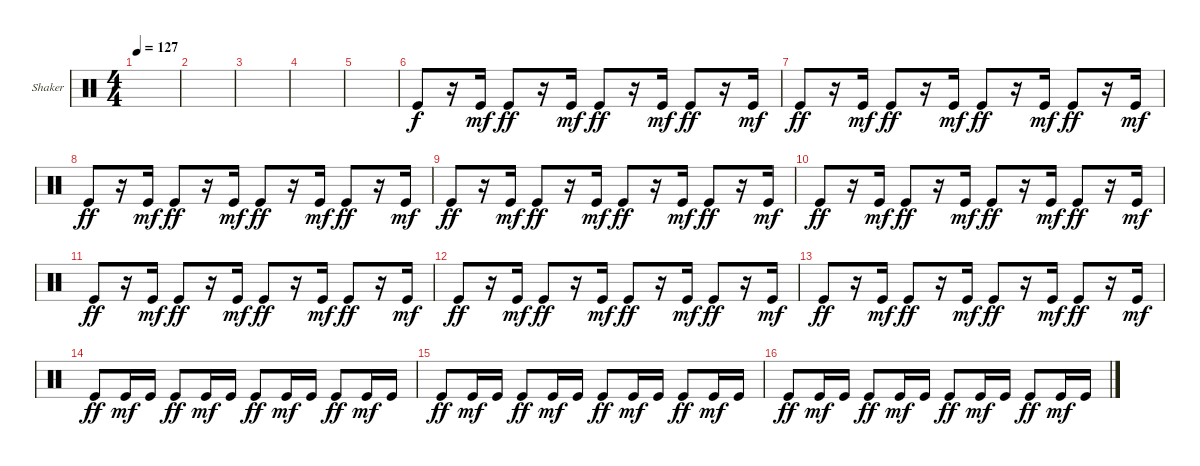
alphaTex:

\bracketExtendMode groupsimilarinstruments
\firstSystemTrackNameOrientation horizontal
\otherSystemsTrackNameOrientation horizontal
\track ("Shaker" "Shaker") {instrument percussion}
\staff {score}
\articulation defaults
\ts (4 4)
\tempo 127
\clef neutral
\ks c
|
|
|
|
|
"Kick (hit)".8 r.16 "Kick (hit)".16{dy mf} "Kick (hit)".8{dy ff} r.16 "Kick (hit)".16{dy mf} "Kick (hit)".8{dy ff} r.16 "Kick (hit)".16{dy mf} "Kick (hit)".8{dy ff} r.16 "Kick (hit)".16{dy mf} |
"Kick (hit)".8{dy ff} r.16 "Kick (hit)".16{dy mf} "Kick (hit)".8{dy ff} r.16 "Kick (hit)".16{dy mf} "Kick (hit)".8{dy ff} r.16 "Kick (hit)".16{dy mf} "Kick (hit)".8{dy ff} r.16 "Kick (hit)".16{dy mf} |
"Kick (hit)".8{dy ff} r.16 "Kick (hit)".16{dy mf} "Kick (hit)".8{dy ff} r.16 "Kick (hit)".16{dy mf} "Kick (hit)".8{dy ff} r.16 "Kick (hit)".16{dy mf} "Kick (hit)".8{dy ff} r.16 "Kick (hit)".16{dy mf} |
"Kick (hit)".8{dy ff} r.16 "Kick (hit)".16{dy mf} "Kick (hit)".8{dy ff} r.16 "Kick (hit)".16{dy mf} "Kick (hit)".8{dy ff} r.16 "Kick (hit)".16{dy mf} "Kick (hit)".8{dy ff} r.16 "Kick (hit)".16{dy mf} |
"Kick (hit)".8{dy ff} r.16 "Kick (hit)".16{dy mf} "Kick (hit)".8{dy ff} r.16 "Kick (hit)".16{dy mf} "Kick (hit)".8{dy ff} r.16 "Kick (hit)".16{dy mf} "Kick (hit)".8{dy ff} r.16 "Kick (hit)".16{dy mf} |
"Kick (hit)".8{dy ff} r.16 "Kick (hit)".16{dy mf} "Kick (hit)".8{dy ff} r.16 "Kick (hit)".16{dy mf} "Kick (hit)".8{dy ff} r.16 "Kick (hit)".16{dy mf} "Kick (hit)".8{dy ff} r.16 "Kick (hit)".16{dy mf} |
"Kick (hit)".8{dy ff} r.16 "Kick (hit)".16{dy mf} "Kick (hit)".8{dy ff} r.16 "Kick (hit)".16{dy mf} "Kick (hit)".8{dy ff} r.16 "Kick (hit)".16{dy mf} "Kick (hit)".8{dy ff} r.16 "Kick (hit)".16{dy mf} |
"Kick (hit)".8{dy ff} r.16 "Kick (hit)".16{dy mf} "Kick (hit)".8{dy ff} r.16 "Kick (hit)".16{dy mf} "Kick (hit)".8{dy ff} r.16 "Kick (hit)".16{dy mf} "Kick (hit)".8{dy ff} r.16 "Kick (hit)".16{dy mf} |
"Kick (hit)".8{dy ff} "Kick (hit)".16{dy mf} "Kick (hit)".16 "Kick (hit)".8{dy ff} "Kick (hit)".16{dy mf} "Kick (hit)".16 "Kick (hit)".8{dy ff} "Kick (hit)".16{dy mf} "Kick (hit)".16 "Kick (hit)".8{dy ff} "Kick (hit)".16{dy mf} "Kick (hit)".16 |
"Kick (hit)".8{dy ff} "Kick (hit)".16{dy mf} "Kick (hit)".16 "Kick (hit)".8{dy ff} "Kick (hit)".16{dy mf} "Kick (hit)".16 "Kick (hit)".8{dy ff} "Kick (hit)".16{dy mf} "Kick (hit)".16 "Kick (hit)".8{dy ff} "Kick (hit)".16{dy mf} "Kick (hit)".16 |
"Kick (hit)".8{dy ff} "Kick (hit)".16{dy mf} "Kick (hit)".16 "Kick (hit)".8{dy ff} "Kick (hit)".16{dy mf} "Kick (hit)".16 "Kick (hit)".8{dy ff} "Kick (hit)".16{dy mf} "Kick (hit)".16 "Kick (hit)".8{dy ff} "Kick (hit)".16{dy mf} "Kick (hit)".16
